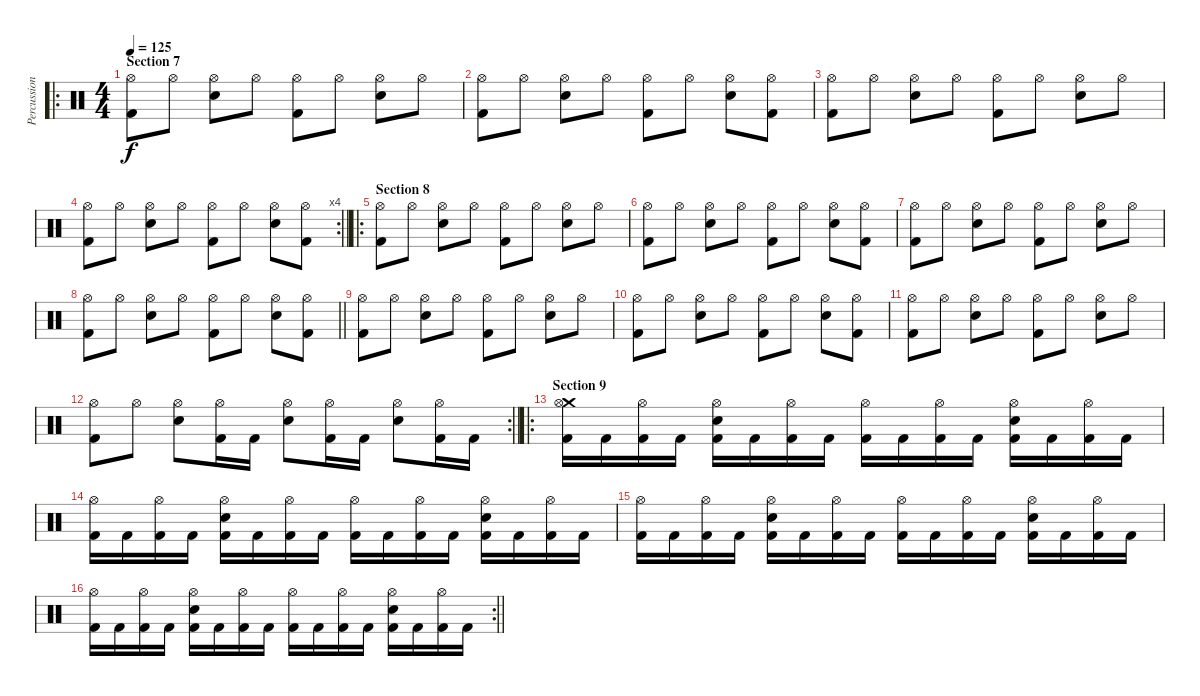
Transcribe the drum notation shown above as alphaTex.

\track ("Percussions" "Percussion") {instrument percussion}
\staff {score}
\articulation defaults
\ro
\ts (4 4)
\section ("" "Section 7")
\tempo 125
\clef neutral
\ks c
("Hi-Hat (open)" "Kick (hit) 2").8{dy f} "Hi-Hat (open)".8 ("Hi-Hat (open)" "Electric Snare (hit)").8 "Hi-Hat (open)".8 ("Hi-Hat (open)" "Kick (hit) 2").8 "Hi-Hat (open)".8 ("Hi-Hat (open)" "Electric Snare (hit)").8 "Hi-Hat (open)".8 |
("Hi-Hat (open)" "Kick (hit) 2").8 "Hi-Hat (open)".8 ("Hi-Hat (open)" "Electric Snare (hit)").8 "Hi-Hat (open)".8 ("Hi-Hat (open)" "Kick (hit) 2").8 "Hi-Hat (open)".8 ("Hi-Hat (open)" "Electric Snare (hit)").8 ("Hi-Hat (open)" "Kick (hit) 2").8 |
("Hi-Hat (open)" "Kick (hit) 2").8 "Hi-Hat (open)".8 ("Hi-Hat (open)" "Electric Snare (hit)").8 "Hi-Hat (open)".8 ("Hi-Hat (open)" "Kick (hit) 2").8 "Hi-Hat (open)".8 ("Hi-Hat (open)" "Electric Snare (hit)").8 "Hi-Hat (open)".8 |
\rc 4
\barLineRight lightlight
("Hi-Hat (open)" "Kick (hit) 2").8 "Hi-Hat (open)".8 ("Hi-Hat (open)" "Electric Snare (hit)").8 "Hi-Hat (open)".8 ("Hi-Hat (open)" "Kick (hit) 2").8 "Hi-Hat (open)".8 ("Hi-Hat (open)" "Electric Snare (hit)").8 ("Hi-Hat (open)" "Kick (hit) 2").8 |
\ro
\section ("" "Section 8")
("Hi-Hat (open)" "Kick (hit) 2").8 "Hi-Hat (open)".8 ("Hi-Hat (open)" "Electric Snare (hit)").8 "Hi-Hat (open)".8 ("Hi-Hat (open)" "Kick (hit) 2").8 "Hi-Hat (open)".8 ("Hi-Hat (open)" "Electric Snare (hit)").8 "Hi-Hat (open)".8 |
("Hi-Hat (open)" "Kick (hit) 2").8 "Hi-Hat (open)".8 ("Hi-Hat (open)" "Electric Snare (hit)").8 "Hi-Hat (open)".8 ("Hi-Hat (open)" "Kick (hit) 2").8 "Hi-Hat (open)".8 ("Hi-Hat (open)" "Electric Snare (hit)").8 ("Hi-Hat (open)" "Kick (hit) 2").8 |
("Hi-Hat (open)" "Kick (hit) 2").8 "Hi-Hat (open)".8 ("Hi-Hat (open)" "Electric Snare (hit)").8 "Hi-Hat (open)".8 ("Hi-Hat (open)" "Kick (hit) 2").8 "Hi-Hat (open)".8 ("Hi-Hat (open)" "Electric Snare (hit)").8 "Hi-Hat (open)".8 |
\barLineRight lightlight
("Hi-Hat (open)" "Kick (hit) 2").8 "Hi-Hat (open)".8 ("Hi-Hat (open)" "Electric Snare (hit)").8 "Hi-Hat (open)".8 ("Hi-Hat (open)" "Kick (hit) 2").8 "Hi-Hat (open)".8 ("Hi-Hat (open)" "Electric Snare (hit)").8 ("Hi-Hat (open)" "Kick (hit) 2").8 |
("Hi-Hat (open)" "Kick (hit) 2").8 "Hi-Hat (open)".8 ("Hi-Hat (open)" "Electric Snare (hit)").8 "Hi-Hat (open)".8 ("Hi-Hat (open)" "Kick (hit) 2").8 "Hi-Hat (open)".8 ("Hi-Hat (open)" "Electric Snare (hit)").8 "Hi-Hat (open)".8 |
("Hi-Hat (open)" "Kick (hit) 2").8 "Hi-Hat (open)".8 ("Hi-Hat (open)" "Electric Snare (hit)").8 "Hi-Hat (open)".8 ("Hi-Hat (open)" "Kick (hit) 2").8 "Hi-Hat (open)".8 ("Hi-Hat (open)" "Electric Snare (hit)").8 ("Hi-Hat (open)" "Kick (hit) 2").8 |
("Hi-Hat (open)" "Kick (hit) 2").8 "Hi-Hat (open)".8 ("Hi-Hat (open)" "Electric Snare (hit)").8 "Hi-Hat (open)".8 ("Hi-Hat (open)" "Kick (hit) 2").8 "Hi-Hat (open)".8 ("Hi-Hat (open)" "Electric Snare (hit)").8 "Hi-Hat (open)".8 |
\rc 2
\barLineRight lightlight
("Hi-Hat (open)" "Kick (hit) 2").8 "Hi-Hat (open)".8 ("Hi-Hat (open)" "Electric Snare (hit)").8 ("Hi-Hat (open)" "Kick (hit) 2").16 "Kick (hit) 2".16 ("Hi-Hat (open)" "Electric Snare (hit)").8 ("Hi-Hat (open)" "Kick (hit) 2").16 "Kick (hit) 2".16 ("Hi-Hat (open)" "Electric Snare (hit)").8 ("Hi-Hat (open)" "Kick (hit) 2").16 "Kick (hit) 2".16 |
\ro
\section ("" "Section 9")
("Crash medium (hit)" "Hi-Hat (open)" "Kick (hit) 2").16 "Kick (hit) 2".16 ("Hi-Hat (open)" "Kick (hit) 2").16 "Kick (hit) 2".16 ("Hi-Hat (open)" "Electric Snare (hit)" "Kick (hit) 2").16 "Kick (hit) 2".16 ("Hi-Hat (open)" "Kick (hit) 2").16 "Kick (hit) 2".16 ("Hi-Hat (open)" "Kick (hit) 2").16 "Kick (hit) 2".16 ("Hi-Hat (open)" "Kick (hit) 2").16 "Kick (hit) 2".16 ("Hi-Hat (open)" "Electric Snare (hit)" "Kick (hit) 2").16 "Kick (hit) 2".16 ("Hi-Hat (open)" "Kick (hit) 2").16 "Kick (hit) 2".16 |
("Hi-Hat (open)" "Kick (hit) 2").16 "Kick (hit) 2".16 ("Hi-Hat (open)" "Kick (hit) 2").16 "Kick (hit) 2".16 ("Hi-Hat (open)" "Electric Snare (hit)" "Kick (hit) 2").16 "Kick (hit) 2".16 ("Hi-Hat (open)" "Kick (hit) 2").16 "Kick (hit) 2".16 ("Hi-Hat (open)" "Kick (hit) 2").16 "Kick (hit) 2".16 ("Hi-Hat (open)" "Kick (hit) 2").16 "Kick (hit) 2".16 ("Hi-Hat (open)" "Electric Snare (hit)" "Kick (hit) 2").16 "Kick (hit) 2".16 ("Hi-Hat (open)" "Kick (hit) 2").16 "Kick (hit) 2".16 |
("Hi-Hat (open)" "Kick (hit) 2").16 "Kick (hit) 2".16 ("Hi-Hat (open)" "Kick (hit) 2").16 "Kick (hit) 2".16 ("Hi-Hat (open)" "Electric Snare (hit)" "Kick (hit) 2").16 "Kick (hit) 2".16 ("Hi-Hat (open)" "Kick (hit) 2").16 "Kick (hit) 2".16 ("Hi-Hat (open)" "Kick (hit) 2").16 "Kick (hit) 2".16 ("Hi-Hat (open)" "Kick (hit) 2").16 "Kick (hit) 2".16 ("Hi-Hat (open)" "Electric Snare (hit)" "Kick (hit) 2").16 "Kick (hit) 2".16 ("Hi-Hat (open)" "Kick (hit) 2").16 "Kick (hit) 2".16 |
\rc 2
\barLineRight lightlight
("Hi-Hat (open)" "Kick (hit) 2").16 "Kick (hit) 2".16 ("Hi-Hat (open)" "Kick (hit) 2").16 "Kick (hit) 2".16 ("Hi-Hat (open)" "Electric Snare (hit)" "Kick (hit) 2").16 "Kick (hit) 2".16 ("Hi-Hat (open)" "Kick (hit) 2").16 "Kick (hit) 2".16 ("Hi-Hat (open)" "Kick (hit) 2").16 "Kick (hit) 2".16 ("Hi-Hat (open)" "Kick (hit) 2").16 "Kick (hit) 2".16 ("Hi-Hat (open)" "Electric Snare (hit)" "Kick (hit) 2").16 "Kick (hit) 2".16 ("Hi-Hat (open)" "Kick (hit) 2").16 "Kick (hit) 2".16
